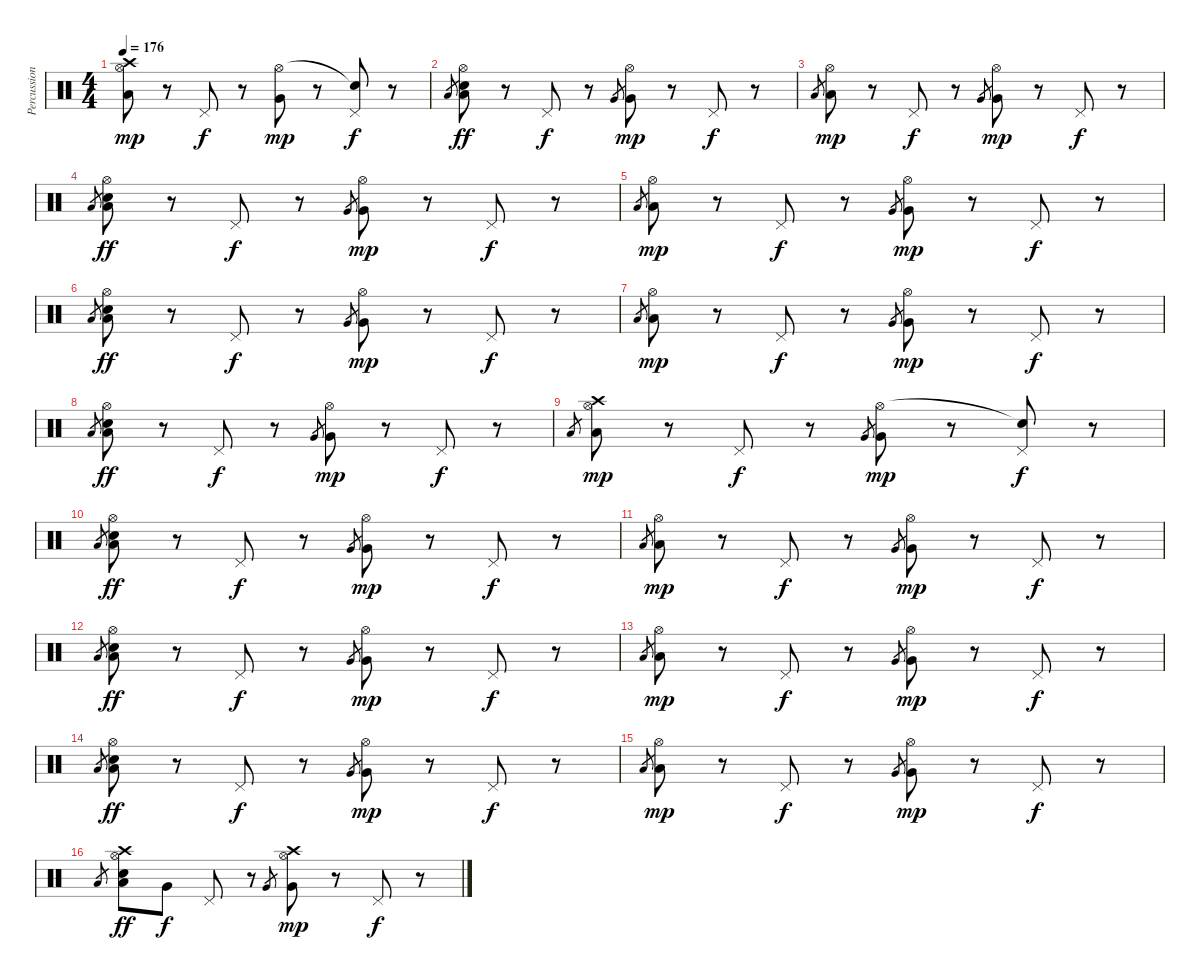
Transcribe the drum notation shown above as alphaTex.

\track ("Percussions" "Percussion") {instrument percussion}
\staff {score}
\articulation defaults
\ts (4 4)
\tempo 176
\clef neutral
\ks c
("Crash high (hit)" "Hi-Hat (open)" "Low Floor Tom (hit)").8{dy mp} r.8 "Pedal Hi-Hat (hit)".8{dy f} r.8 ("Hi-Hat (open)" "Very Low Tom (hit)").8{dy mp} r.8 ("Snare (hit)"{t} "Pedal Hi-Hat (hit)").8{dy f} r.8 |
"Low Tom (hit)".8{gr} ("Hi-Hat (open)" "Low Tom (hit)" "Electric Snare (hit)").8{dy ff} r.8 "Pedal Hi-Hat (hit)".8{dy f} r.8 "Very Low Tom (hit)".8{gr} ("Hi-Hat (open)" "Very Low Tom (hit)").8{dy mp} r.8 "Pedal Hi-Hat (hit)".8{dy f} r.8 |
"Low Floor Tom (hit)".8{gr} ("Hi-Hat (open)" "Low Floor Tom (hit)").8{dy mp} r.8 "Pedal Hi-Hat (hit)".8{dy f} r.8 "Very Low Tom (hit)".8{gr} ("Hi-Hat (open)" "Very Low Tom (hit)").8{dy mp} r.8 "Pedal Hi-Hat (hit)".8{dy f} r.8 |
"Low Tom (hit)".8{gr} ("Hi-Hat (open)" "Low Tom (hit)" "Electric Snare (hit)").8{dy ff} r.8 "Pedal Hi-Hat (hit)".8{dy f} r.8 "Very Low Tom (hit)".8{gr} ("Hi-Hat (open)" "Very Low Tom (hit)").8{dy mp} r.8 "Pedal Hi-Hat (hit)".8{dy f} r.8 |
"Low Floor Tom (hit)".8{gr} ("Hi-Hat (open)" "Low Floor Tom (hit)").8{dy mp} r.8 "Pedal Hi-Hat (hit)".8{dy f} r.8 "Very Low Tom (hit)".8{gr} ("Hi-Hat (open)" "Very Low Tom (hit)").8{dy mp} r.8 "Pedal Hi-Hat (hit)".8{dy f} r.8 |
"Low Tom (hit)".8{gr} ("Hi-Hat (open)" "Low Tom (hit)" "Electric Snare (hit)").8{dy ff} r.8 "Pedal Hi-Hat (hit)".8{dy f} r.8 "Very Low Tom (hit)".8{gr} ("Hi-Hat (open)" "Very Low Tom (hit)").8{dy mp} r.8 "Pedal Hi-Hat (hit)".8{dy f} r.8 |
"Low Floor Tom (hit)".8{gr} ("Hi-Hat (open)" "Low Floor Tom (hit)").8{dy mp} r.8 "Pedal Hi-Hat (hit)".8{dy f} r.8 "Very Low Tom (hit)".8{gr} ("Hi-Hat (open)" "Very Low Tom (hit)").8{dy mp} r.8 "Pedal Hi-Hat (hit)".8{dy f} r.8 |
"Low Tom (hit)".8{gr} ("Hi-Hat (open)" "Low Tom (hit)" "Electric Snare (hit)").8{dy ff} r.8 "Pedal Hi-Hat (hit)".8{dy f} r.8 "Very Low Tom (hit)".8{gr} ("Hi-Hat (open)" "Very Low Tom (hit)").8{dy mp} r.8 "Pedal Hi-Hat (hit)".8{dy f} r.8 |
"Low Floor Tom (hit)".8{gr} ("Crash high (hit)" "Hi-Hat (open)" "Low Floor Tom (hit)").8{dy mp} r.8 "Pedal Hi-Hat (hit)".8{dy f} r.8 "Very Low Tom (hit)".8{gr} ("Hi-Hat (open)" "Very Low Tom (hit)").8{dy mp} r.8 ("Snare (hit)"{t} "Pedal Hi-Hat (hit)").8{dy f} r.8 |
"Low Tom (hit)".8{gr} ("Hi-Hat (open)" "Low Tom (hit)" "Electric Snare (hit)").8{dy ff} r.8 "Pedal Hi-Hat (hit)".8{dy f} r.8 "Very Low Tom (hit)".8{gr} ("Hi-Hat (open)" "Very Low Tom (hit)").8{dy mp} r.8 "Pedal Hi-Hat (hit)".8{dy f} r.8 |
"Low Floor Tom (hit)".8{gr} ("Hi-Hat (open)" "Low Floor Tom (hit)").8{dy mp} r.8 "Pedal Hi-Hat (hit)".8{dy f} r.8 "Very Low Tom (hit)".8{gr} ("Hi-Hat (open)" "Very Low Tom (hit)").8{dy mp} r.8 "Pedal Hi-Hat (hit)".8{dy f} r.8 |
"Low Tom (hit)".8{gr} ("Hi-Hat (open)" "Low Tom (hit)" "Electric Snare (hit)").8{dy ff} r.8 "Pedal Hi-Hat (hit)".8{dy f} r.8 "Very Low Tom (hit)".8{gr} ("Hi-Hat (open)" "Very Low Tom (hit)").8{dy mp} r.8 "Pedal Hi-Hat (hit)".8{dy f} r.8 |
"Low Floor Tom (hit)".8{gr} ("Hi-Hat (open)" "Low Floor Tom (hit)").8{dy mp} r.8 "Pedal Hi-Hat (hit)".8{dy f} r.8 "Very Low Tom (hit)".8{gr} ("Hi-Hat (open)" "Very Low Tom (hit)").8{dy mp} r.8 "Pedal Hi-Hat (hit)".8{dy f} r.8 |
"Low Tom (hit)".8{gr} ("Hi-Hat (open)" "Low Tom (hit)" "Electric Snare (hit)").8{dy ff} r.8 "Pedal Hi-Hat (hit)".8{dy f} r.8 "Very Low Tom (hit)".8{gr} ("Hi-Hat (open)" "Very Low Tom (hit)").8{dy mp} r.8 "Pedal Hi-Hat (hit)".8{dy f} r.8 |
"Low Floor Tom (hit)".8{gr} ("Hi-Hat (open)" "Low Floor Tom (hit)").8{dy mp} r.8 "Pedal Hi-Hat (hit)".8{dy f} r.8 "Very Low Tom (hit)".8{gr} ("Hi-Hat (open)" "Very Low Tom (hit)").8{dy mp} r.8 "Pedal Hi-Hat (hit)".8{dy f} r.8 |
"Low Tom (hit)".8{gr} ("Crash high (hit)" "Hi-Hat (open)" "Low Tom (hit)" "Electric Snare (hit)").8{dy ff} "Very Low Tom (hit)".8{dy f} "Pedal Hi-Hat (hit)".8 r.8 "Very Low Tom (hit)".8{gr} ("Crash high (hit)" "Hi-Hat (open)" "Very Low Tom (hit)").8{dy mp} r.8 "Pedal Hi-Hat (hit)".8{dy f} r.8
